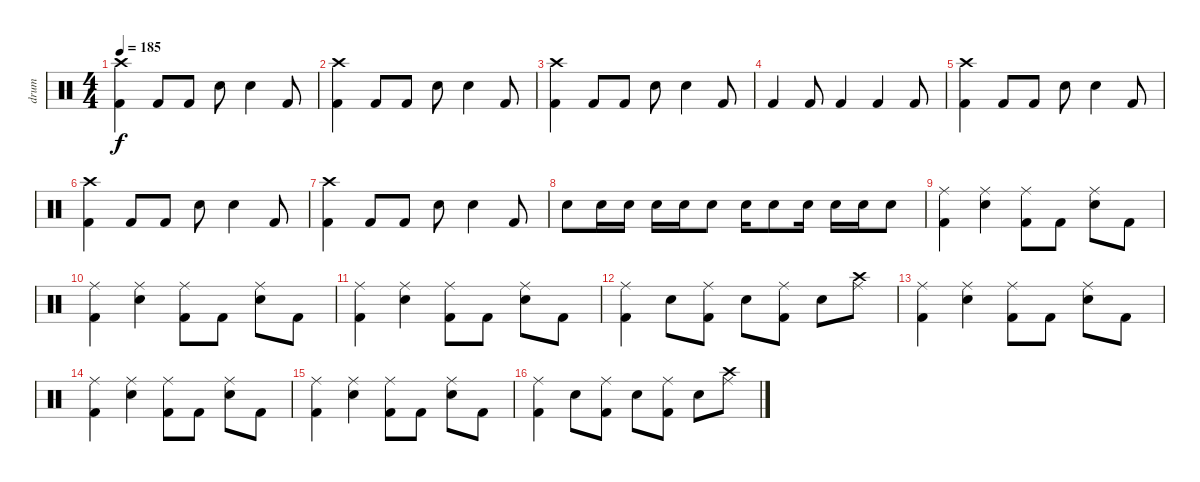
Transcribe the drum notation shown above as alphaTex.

\track ("drum" "drum") {instrument percussion}
\staff {score}
\articulation defaults
\ts (4 4)
\tempo 185
\clef neutral
\ks c
("Crash high (hit)" "Kick (hit) 2").4{dy f} "Kick (hit) 2".8 "Kick (hit) 2".8 "Snare (hit) 2".8 "Snare (hit) 2".4 "Kick (hit) 2".8 |
("Crash high (hit)" "Kick (hit) 2").4 "Kick (hit) 2".8 "Kick (hit) 2".8 "Snare (hit) 2".8 "Snare (hit) 2".4 "Kick (hit) 2".8 |
("Crash high (hit)" "Kick (hit) 2").4 "Kick (hit) 2".8 "Kick (hit) 2".8 "Snare (hit) 2".8 "Snare (hit) 2".4 "Kick (hit) 2".8 |
"Kick (hit) 2".4 "Kick (hit) 2".8 "Kick (hit) 2".4 "Kick (hit) 2".4 "Kick (hit) 2".8 |
("Crash high (hit)" "Kick (hit) 2").4 "Kick (hit) 2".8 "Kick (hit) 2".8 "Snare (hit) 2".8 "Snare (hit) 2".4 "Kick (hit) 2".8 |
("Crash high (hit)" "Kick (hit) 2").4 "Kick (hit) 2".8 "Kick (hit) 2".8 "Snare (hit) 2".8 "Snare (hit) 2".4 "Kick (hit) 2".8 |
("Crash high (hit)" "Kick (hit) 2").4 "Kick (hit) 2".8 "Kick (hit) 2".8 "Snare (hit) 2".8 "Snare (hit) 2".4 "Kick (hit) 2".8 |
"Snare (hit) 2".8 "Snare (hit) 2".16 "Snare (hit) 2".16 "Snare (hit) 2".16 "Snare (hit) 2".16 "Snare (hit) 2".8 "Snare (hit) 2".16 "Snare (hit) 2".8 "Snare (hit) 2".16 "Snare (hit) 2".16 "Snare (hit) 2".16 "Snare (hit) 2".8 |
("Ride (middle)" "Kick (hit) 2").4 ("Ride (middle)" "Snare (hit) 2").4 ("Ride (middle)" "Kick (hit) 2").8 "Kick (hit) 2".8 ("Ride (middle)" "Snare (hit) 2").8 "Kick (hit) 2".8 |
("Ride (middle)" "Kick (hit) 2").4 ("Ride (middle)" "Snare (hit) 2").4 ("Ride (middle)" "Kick (hit) 2").8 "Kick (hit) 2".8 ("Ride (middle)" "Snare (hit) 2").8 "Kick (hit) 2".8 |
("Ride (middle)" "Kick (hit) 2").4 ("Ride (middle)" "Snare (hit) 2").4 ("Ride (middle)" "Kick (hit) 2").8 "Kick (hit) 2".8 ("Ride (middle)" "Snare (hit) 2").8 "Kick (hit) 2".8 |
("Ride (middle)" "Kick (hit) 2").4 "Snare (hit) 2".8 ("Ride (middle)" "Kick (hit) 2").8 "Snare (hit) 2".8 ("Ride (middle)" "Kick (hit) 2").8 "Snare (hit) 2".8 ("Ride (middle)" "Crash high (hit)").8 |
("Ride (middle)" "Kick (hit) 2").4 ("Ride (middle)" "Snare (hit) 2").4 ("Ride (middle)" "Kick (hit) 2").8 "Kick (hit) 2".8 ("Ride (middle)" "Snare (hit) 2").8 "Kick (hit) 2".8 |
("Ride (middle)" "Kick (hit) 2").4 ("Ride (middle)" "Snare (hit) 2").4 ("Ride (middle)" "Kick (hit) 2").8 "Kick (hit) 2".8 ("Ride (middle)" "Snare (hit) 2").8 "Kick (hit) 2".8 |
("Ride (middle)" "Kick (hit) 2").4 ("Ride (middle)" "Snare (hit) 2").4 ("Ride (middle)" "Kick (hit) 2").8 "Kick (hit) 2".8 ("Ride (middle)" "Snare (hit) 2").8 "Kick (hit) 2".8 |
("Ride (middle)" "Kick (hit) 2").4 "Snare (hit) 2".8 ("Ride (middle)" "Kick (hit) 2").8 "Snare (hit) 2".8 ("Ride (middle)" "Kick (hit) 2").8 "Snare (hit) 2".8 ("Ride (middle)" "Crash high (hit)").8
